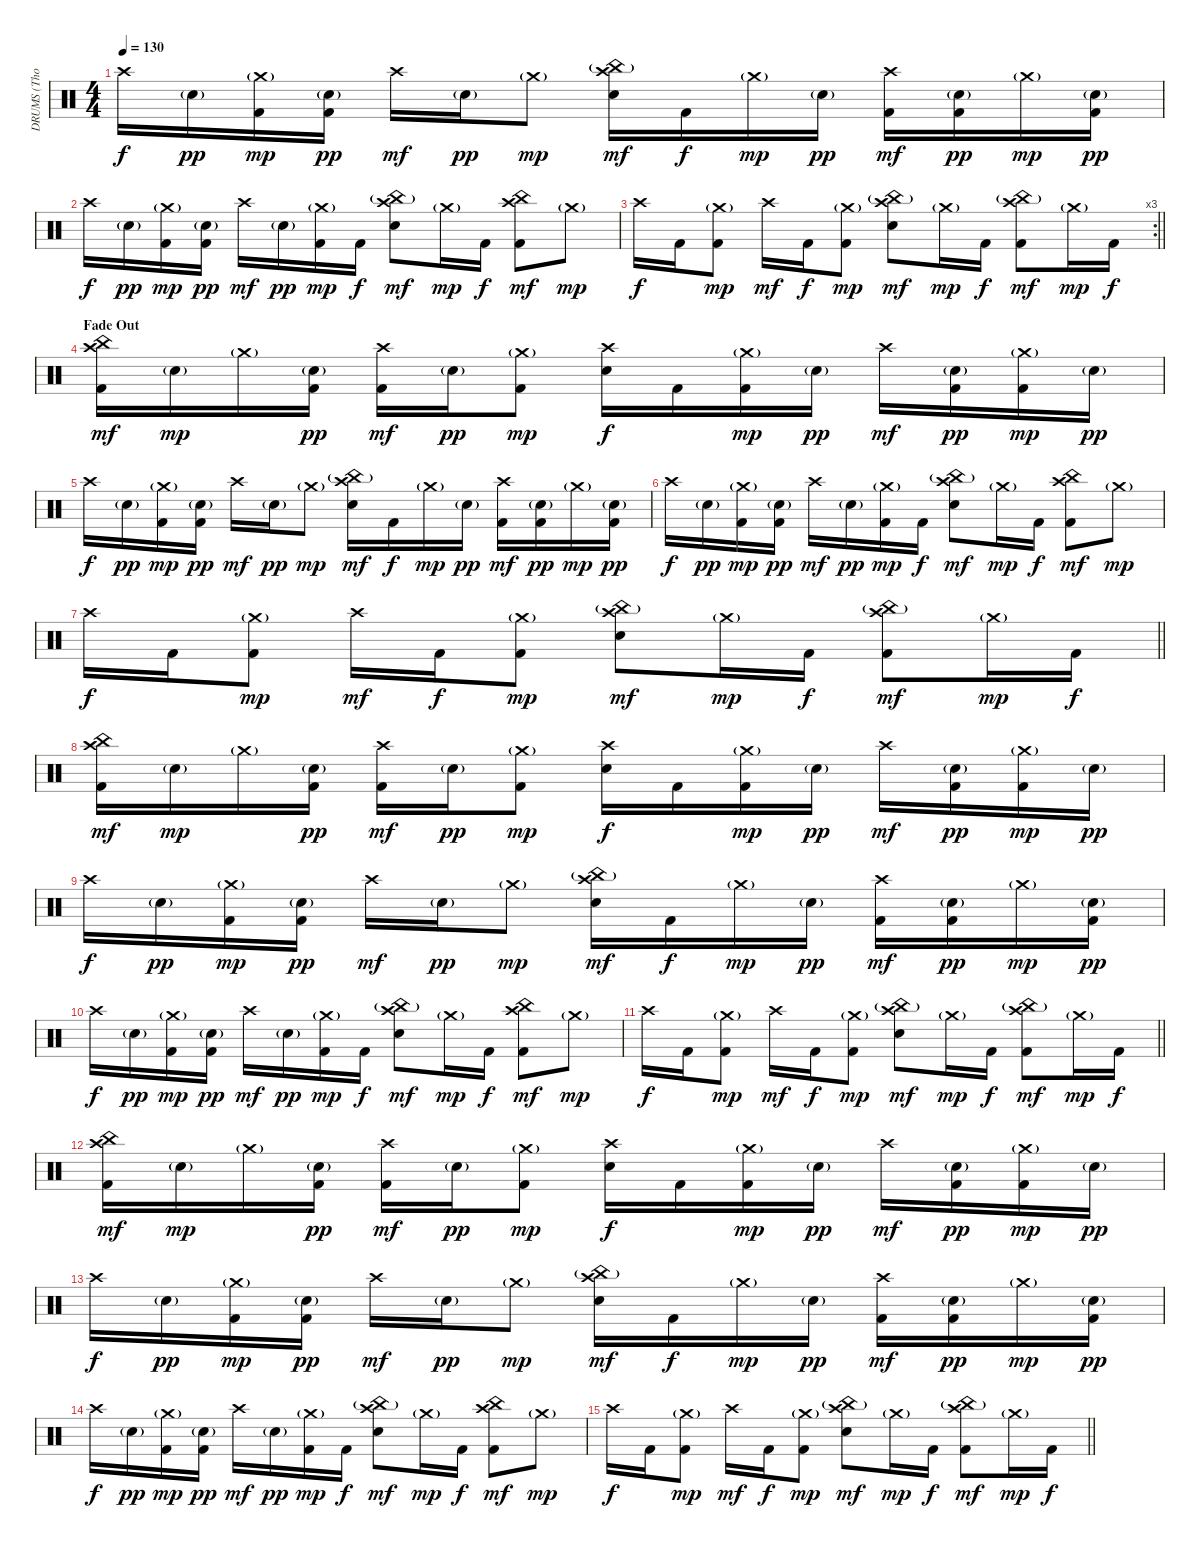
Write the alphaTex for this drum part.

\track ("DRUMS (Thomas Haake)" "DRUMS (Tho") {instrument percussion}
\staff {score}
\articulation defaults
\ts (4 4)
\tempo 130
\clef neutral
\ks c "Crash high (hit)".16{dy f} "Electric Snare (hit)"{g}.16{dy pp}
("Crash medium (hit)"{g} "Kick (hit) 2").16{dy mp} ("Electric Snare (hit)"{g} "Kick (hit) 2").16{dy pp} "Crash high (hit)".16{dy mf} "Electric Snare (hit)"{g}.16{dy pp} "Crash medium (hit)"{g}.8{dy mp} ("Crash high (hit)" "China (hit)"{g} "Electric Snare (hit)").16{dy mf} "Kick (hit) 2".16{dy f} "Crash medium (hit)"{g}.16{dy mp} "Electric Snare (hit)"{g}.16{dy pp} ("Crash high (hit)" "Kick (hit) 2").16{dy mf} ("Electric Snare (hit)"{g} "Kick (hit) 2").16{dy pp} "Crash medium (hit)"{g}.16{dy mp} ("Electric Snare (hit)"{g} "Kick (hit) 2").16{dy pp} |
"Crash high (hit)".16{dy f} "Electric Snare (hit)"{g}.16{dy pp} ("Crash medium (hit)"{g} "Kick (hit) 2").16{dy mp} ("Electric Snare (hit)"{g} "Kick (hit) 2").16{dy pp} "Crash high (hit)".16{dy mf} "Electric Snare (hit)"{g}.16{dy pp} ("Crash medium (hit)"{g} "Kick (hit) 2").16{dy mp} "Kick (hit) 2".16{dy f} ("Crash high (hit)" "China (hit)"{g} "Electric Snare (hit)").8{dy mf} "Crash medium (hit)"{g}.16{dy mp} "Kick (hit) 2".16{dy f} ("Crash high (hit)" "China (hit)" "Kick (hit) 2").8{dy mf} "Crash medium (hit)"{g}.8{dy mp} |
\rc 3
\barLineRight lightlight "Crash high (hit)".16{dy f} "Kick (hit) 2".16
("Crash medium (hit)"{g} "Kick (hit) 2").8{dy mp} "Crash high (hit)".16{dy mf} "Kick (hit) 2".16{dy f} ("Crash medium (hit)"{g} "Kick (hit) 2").8{dy mp} ("Crash high (hit)" "China (hit)"{g} "Electric Snare (hit)").8{dy mf} "Crash medium (hit)"{g}.16{dy mp} "Kick (hit) 2".16{dy f} ("Crash high (hit)" "China (hit)"{g} "Kick (hit) 2").8{dy mf} "Crash medium (hit)"{g}.16{dy mp} "Kick (hit) 2".16{dy f} |
\section ("" "Fade Out")
("Crash high (hit)" "China (hit)" "Kick (hit) 2").16{dy mf volume 9} "Electric Snare (hit)"{g}.16{dy mp} "Crash medium (hit)"{g}.16 ("Electric Snare (hit)"{g} "Kick (hit) 2").16{dy pp} ("Crash high (hit)" "Kick (hit) 2").16{dy mf} "Electric Snare (hit)"{g}.16{dy pp} ("Crash medium (hit)"{g} "Kick (hit) 2").8{dy mp} ("Crash high (hit)" "Electric Snare (hit)").16{dy f} "Kick (hit) 2".16 ("Crash medium (hit)"{g} "Kick (hit) 2").16{dy mp} "Electric Snare (hit)"{g}.16{dy pp} "Crash high (hit)".16{dy mf} ("Electric Snare (hit)"{g} "Kick (hit) 2").16{dy pp} ("Crash medium (hit)"{g} "Kick (hit) 2").16{dy mp} "Electric Snare (hit)"{g}.16{dy pp} |
"Crash high (hit)".16{dy f} "Electric Snare (hit)"{g}.16{dy pp} ("Crash medium (hit)"{g} "Kick (hit) 2").16{dy mp} ("Electric Snare (hit)"{g} "Kick (hit) 2").16{dy pp} "Crash high (hit)".16{dy mf} "Electric Snare (hit)"{g}.16{dy pp} "Crash medium (hit)"{g}.8{dy mp} ("Crash high (hit)" "China (hit)"{g} "Electric Snare (hit)").16{dy mf} "Kick (hit) 2".16{dy f} "Crash medium (hit)"{g}.16{dy mp} "Electric Snare (hit)"{g}.16{dy pp} ("Crash high (hit)" "Kick (hit) 2").16{dy mf} ("Electric Snare (hit)"{g} "Kick (hit) 2").16{dy pp} "Crash medium (hit)"{g}.16{dy mp} ("Electric Snare (hit)"{g} "Kick (hit) 2").16{dy pp} |
"Crash high (hit)".16{dy f} "Electric Snare (hit)"{g}.16{dy pp} ("Crash medium (hit)"{g} "Kick (hit) 2").16{dy mp} ("Electric Snare (hit)"{g} "Kick (hit) 2").16{dy pp} "Crash high (hit)".16{dy mf} "Electric Snare (hit)"{g}.16{dy pp} ("Crash medium (hit)"{g} "Kick (hit) 2").16{dy mp} "Kick (hit) 2".16{dy f} ("Crash high (hit)" "China (hit)"{g} "Electric Snare (hit)").8{dy mf} "Crash medium (hit)"{g}.16{dy mp} "Kick (hit) 2".16{dy f} ("Crash high (hit)" "China (hit)" "Kick (hit) 2").8{dy mf} "Crash medium (hit)"{g}.8{dy mp} |
\barLineRight lightlight "Crash high (hit)".16{dy f} "Kick (hit) 2".16
("Crash medium (hit)"{g} "Kick (hit) 2").8{dy mp} "Crash high (hit)".16{dy mf} "Kick (hit) 2".16{dy f} ("Crash medium (hit)"{g} "Kick (hit) 2").8{dy mp} ("Crash high (hit)" "China (hit)"{g} "Electric Snare (hit)").8{dy mf} "Crash medium (hit)"{g}.16{dy mp} "Kick (hit) 2".16{dy f} ("Crash high (hit)" "China (hit)"{g} "Kick (hit) 2").8{dy mf} "Crash medium (hit)"{g}.16{dy mp} "Kick (hit) 2".16{dy f} |
("Crash high (hit)" "China (hit)" "Kick (hit) 2").16{dy mf volume 5} "Electric Snare (hit)"{g}.16{dy mp} "Crash medium (hit)"{g}.16 ("Electric Snare (hit)"{g} "Kick (hit) 2").16{dy pp} ("Crash high (hit)" "Kick (hit) 2").16{dy mf} "Electric Snare (hit)"{g}.16{dy pp} ("Crash medium (hit)"{g} "Kick (hit) 2").8{dy mp} ("Crash high (hit)" "Electric Snare (hit)").16{dy f} "Kick (hit) 2".16 ("Crash medium (hit)"{g} "Kick (hit) 2").16{dy mp} "Electric Snare (hit)"{g}.16{dy pp} "Crash high (hit)".16{dy mf} ("Electric Snare (hit)"{g} "Kick (hit) 2").16{dy pp} ("Crash medium (hit)"{g} "Kick (hit) 2").16{dy mp} "Electric Snare (hit)"{g}.16{dy pp} |
"Crash high (hit)".16{dy f} "Electric Snare (hit)"{g}.16{dy pp} ("Crash medium (hit)"{g} "Kick (hit) 2").16{dy mp} ("Electric Snare (hit)"{g} "Kick (hit) 2").16{dy pp} "Crash high (hit)".16{dy mf} "Electric Snare (hit)"{g}.16{dy pp} "Crash medium (hit)"{g}.8{dy mp} ("Crash high (hit)" "China (hit)"{g} "Electric Snare (hit)").16{dy mf} "Kick (hit) 2".16{dy f} "Crash medium (hit)"{g}.16{dy mp} "Electric Snare (hit)"{g}.16{dy pp} ("Crash high (hit)" "Kick (hit) 2").16{dy mf} ("Electric Snare (hit)"{g} "Kick (hit) 2").16{dy pp} "Crash medium (hit)"{g}.16{dy mp} ("Electric Snare (hit)"{g} "Kick (hit) 2").16{dy pp} |
"Crash high (hit)".16{dy f} "Electric Snare (hit)"{g}.16{dy pp} ("Crash medium (hit)"{g} "Kick (hit) 2").16{dy mp} ("Electric Snare (hit)"{g} "Kick (hit) 2").16{dy pp} "Crash high (hit)".16{dy mf} "Electric Snare (hit)"{g}.16{dy pp} ("Crash medium (hit)"{g} "Kick (hit) 2").16{dy mp} "Kick (hit) 2".16{dy f} ("Crash high (hit)" "China (hit)"{g} "Electric Snare (hit)").8{dy mf} "Crash medium (hit)"{g}.16{dy mp} "Kick (hit) 2".16{dy f} ("Crash high (hit)" "China (hit)" "Kick (hit) 2").8{dy mf} "Crash medium (hit)"{g}.8{dy mp} |
\barLineRight lightlight "Crash high (hit)".16{dy f} "Kick (hit) 2".16
("Crash medium (hit)"{g} "Kick (hit) 2").8{dy mp} "Crash high (hit)".16{dy mf} "Kick (hit) 2".16{dy f} ("Crash medium (hit)"{g} "Kick (hit) 2").8{dy mp} ("Crash high (hit)" "China (hit)"{g} "Electric Snare (hit)").8{dy mf} "Crash medium (hit)"{g}.16{dy mp} "Kick (hit) 2".16{dy f} ("Crash high (hit)" "China (hit)"{g} "Kick (hit) 2").8{dy mf} "Crash medium (hit)"{g}.16{dy mp} "Kick (hit) 2".16{dy f} |
("Crash high (hit)" "China (hit)" "Kick (hit) 2").16{dy mf volume 0} "Electric Snare (hit)"{g}.16{dy mp} "Crash medium (hit)"{g}.16 ("Electric Snare (hit)"{g} "Kick (hit) 2").16{dy pp} ("Crash high (hit)" "Kick (hit) 2").16{dy mf} "Electric Snare (hit)"{g}.16{dy pp} ("Crash medium (hit)"{g} "Kick (hit) 2").8{dy mp} ("Crash high (hit)" "Electric Snare (hit)").16{dy f} "Kick (hit) 2".16 ("Crash medium (hit)"{g} "Kick (hit) 2").16{dy mp} "Electric Snare (hit)"{g}.16{dy pp} "Crash high (hit)".16{dy mf} ("Electric Snare (hit)"{g} "Kick (hit) 2").16{dy pp} ("Crash medium (hit)"{g} "Kick (hit) 2").16{dy mp} "Electric Snare (hit)"{g}.16{dy pp} |
"Crash high (hit)".16{dy f} "Electric Snare (hit)"{g}.16{dy pp} ("Crash medium (hit)"{g} "Kick (hit) 2").16{dy mp} ("Electric Snare (hit)"{g} "Kick (hit) 2").16{dy pp} "Crash high (hit)".16{dy mf} "Electric Snare (hit)"{g}.16{dy pp} "Crash medium (hit)"{g}.8{dy mp} ("Crash high (hit)" "China (hit)"{g} "Electric Snare (hit)").16{dy mf} "Kick (hit) 2".16{dy f} "Crash medium (hit)"{g}.16{dy mp} "Electric Snare (hit)"{g}.16{dy pp} ("Crash high (hit)" "Kick (hit) 2").16{dy mf} ("Electric Snare (hit)"{g} "Kick (hit) 2").16{dy pp} "Crash medium (hit)"{g}.16{dy mp} ("Electric Snare (hit)"{g} "Kick (hit) 2").16{dy pp} |
"Crash high (hit)".16{dy f} "Electric Snare (hit)"{g}.16{dy pp} ("Crash medium (hit)"{g} "Kick (hit) 2").16{dy mp} ("Electric Snare (hit)"{g} "Kick (hit) 2").16{dy pp} "Crash high (hit)".16{dy mf} "Electric Snare (hit)"{g}.16{dy pp} ("Crash medium (hit)"{g} "Kick (hit) 2").16{dy mp} "Kick (hit) 2".16{dy f} ("Crash high (hit)" "China (hit)"{g} "Electric Snare (hit)").8{dy mf} "Crash medium (hit)"{g}.16{dy mp} "Kick (hit) 2".16{dy f} ("Crash high (hit)" "China (hit)" "Kick (hit) 2").8{dy mf} "Crash medium (hit)"{g}.8{dy mp} |
\barLineRight lightlight "Crash high (hit)".16{dy f} "Kick (hit) 2".16
("Crash medium (hit)"{g} "Kick (hit) 2").8{dy mp} "Crash high (hit)".16{dy mf} "Kick (hit) 2".16{dy f} ("Crash medium (hit)"{g} "Kick (hit) 2").8{dy mp} ("Crash high (hit)" "China (hit)"{g} "Electric Snare (hit)").8{dy mf} "Crash medium (hit)"{g}.16{dy mp} "Kick (hit) 2".16{dy f} ("Crash high (hit)" "China (hit)"{g} "Kick (hit) 2").8{dy mf} "Crash medium (hit)"{g}.16{dy mp} "Kick (hit) 2".16{dy f}
